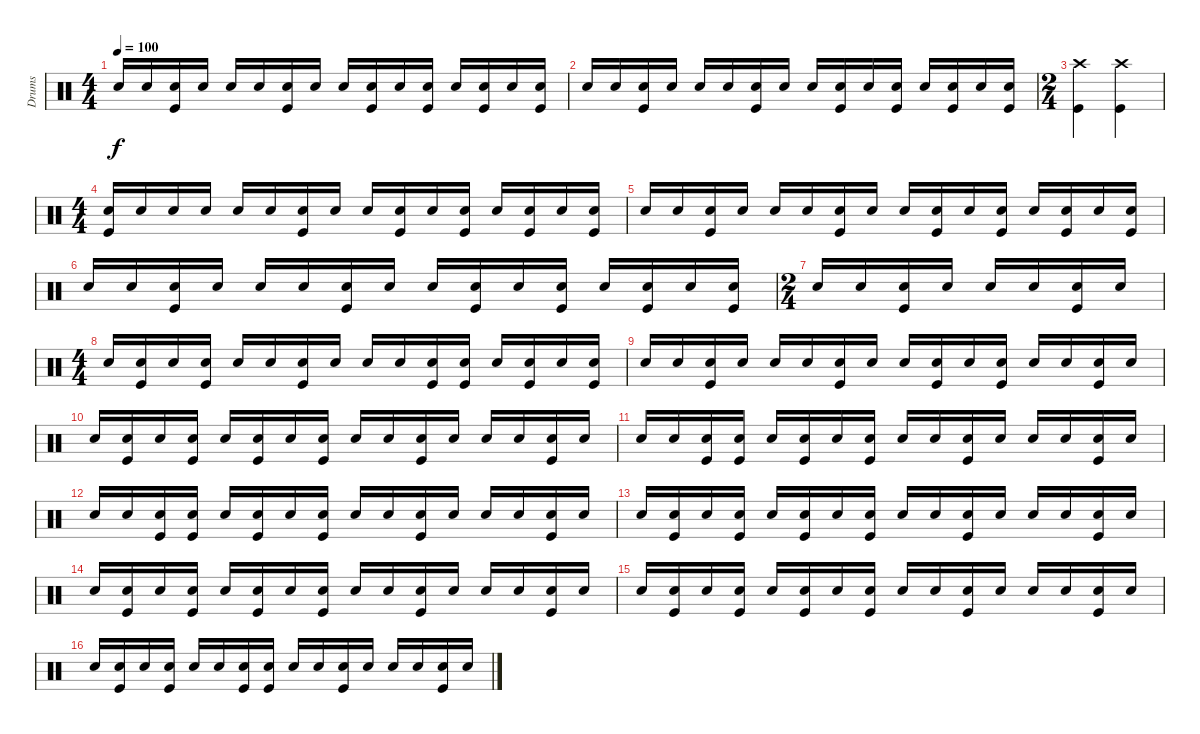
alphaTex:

\track ("Drums" "Drums") {instrument percussion}
\staff {score}
\articulation defaults
\ts (4 4)
\tempo 100
\clef neutral
\ks c "Snare (hit) 2".16{dy f} "Snare (hit) 2".16
("Snare (hit) 2" "Kick (hit)").16 "Snare (hit) 2".16 "Snare (hit) 2".16 "Snare (hit) 2".16 ("Snare (hit) 2" "Kick (hit)").16 "Snare (hit) 2".16 "Snare (hit) 2".16 ("Snare (hit) 2" "Kick (hit)").16 "Snare (hit) 2".16 ("Snare (hit) 2" "Kick (hit)").16 "Snare (hit) 2".16 ("Snare (hit) 2" "Kick (hit)").16 "Snare (hit) 2".16 ("Snare (hit) 2" "Kick (hit)").16 |
"Snare (hit) 2".16 "Snare (hit) 2".16 ("Snare (hit) 2" "Kick (hit)").16 "Snare (hit) 2".16 "Snare (hit) 2".16 "Snare (hit) 2".16 ("Snare (hit) 2" "Kick (hit)").16 "Snare (hit) 2".16 "Snare (hit) 2".16 ("Snare (hit) 2" "Kick (hit)").16 "Snare (hit) 2".16 ("Snare (hit) 2" "Kick (hit)").16 "Snare (hit) 2".16 ("Snare (hit) 2" "Kick (hit)").16 "Snare (hit) 2".16 ("Snare (hit) 2" "Kick (hit)").16 |
\ts (2 4)
("Crash high (hit)" "Kick (hit)").4 ("Crash high (hit)" "Kick (hit)").4 |
\ts (4 4)
("Snare (hit) 2" "Kick (hit)").16 "Snare (hit) 2".16 "Snare (hit) 2".16 "Snare (hit) 2".16 "Snare (hit) 2".16 "Snare (hit) 2".16 ("Snare (hit) 2" "Kick (hit)").16 "Snare (hit) 2".16 "Snare (hit) 2".16 ("Snare (hit) 2" "Kick (hit)").16 "Snare (hit) 2".16 ("Snare (hit) 2" "Kick (hit)").16 "Snare (hit) 2".16 ("Snare (hit) 2" "Kick (hit)").16 "Snare (hit) 2".16 ("Snare (hit) 2" "Kick (hit)").16 |
"Snare (hit) 2".16 "Snare (hit) 2".16 ("Snare (hit) 2" "Kick (hit)").16 "Snare (hit) 2".16 "Snare (hit) 2".16 "Snare (hit) 2".16 ("Snare (hit) 2" "Kick (hit)").16 "Snare (hit) 2".16 "Snare (hit) 2".16 ("Snare (hit) 2" "Kick (hit)").16 "Snare (hit) 2".16 ("Snare (hit) 2" "Kick (hit)").16 "Snare (hit) 2".16 ("Snare (hit) 2" "Kick (hit)").16 "Snare (hit) 2".16 ("Snare (hit) 2" "Kick (hit)").16 |
"Snare (hit) 2".16 "Snare (hit) 2".16 ("Snare (hit) 2" "Kick (hit)").16 "Snare (hit) 2".16 "Snare (hit) 2".16 "Snare (hit) 2".16 ("Snare (hit) 2" "Kick (hit)").16 "Snare (hit) 2".16 "Snare (hit) 2".16 ("Snare (hit) 2" "Kick (hit)").16 "Snare (hit) 2".16 ("Snare (hit) 2" "Kick (hit)").16 "Snare (hit) 2".16 ("Snare (hit) 2" "Kick (hit)").16 "Snare (hit) 2".16 ("Snare (hit) 2" "Kick (hit)").16 |
\ts (2 4)
"Snare (hit) 2".16 "Snare (hit) 2".16 ("Snare (hit) 2" "Kick (hit)").16 "Snare (hit) 2".16 "Snare (hit) 2".16 "Snare (hit) 2".16 ("Snare (hit) 2" "Kick (hit)").16 "Snare (hit) 2".16 |
\ts (4 4)
"Snare (hit) 2".16 ("Snare (hit) 2" "Kick (hit)").16 "Snare (hit) 2".16 ("Snare (hit) 2" "Kick (hit)").16 "Snare (hit) 2".16 "Snare (hit) 2".16 ("Snare (hit) 2" "Kick (hit)").16 "Snare (hit) 2".16 "Snare (hit) 2".16 "Snare (hit) 2".16 ("Snare (hit) 2" "Kick (hit)").16 ("Snare (hit) 2" "Kick (hit)").16 "Snare (hit) 2".16 ("Snare (hit) 2" "Kick (hit)").16 "Snare (hit) 2".16 ("Snare (hit) 2" "Kick (hit)").16 |
"Snare (hit) 2".16 "Snare (hit) 2".16 ("Snare (hit) 2" "Kick (hit)").16 "Snare (hit) 2".16 "Snare (hit) 2".16 "Snare (hit) 2".16 ("Snare (hit) 2" "Kick (hit)").16 "Snare (hit) 2".16 "Snare (hit) 2".16 ("Snare (hit) 2" "Kick (hit)").16 "Snare (hit) 2".16 ("Snare (hit) 2" "Kick (hit)").16 "Snare (hit) 2".16 "Snare (hit) 2".16 ("Snare (hit) 2" "Kick (hit)").16 "Snare (hit) 2".16 |
"Snare (hit) 2".16 ("Snare (hit) 2" "Kick (hit)").16 "Snare (hit) 2".16 ("Snare (hit) 2" "Kick (hit)").16 "Snare (hit) 2".16 ("Snare (hit) 2" "Kick (hit)").16 "Snare (hit) 2".16 ("Snare (hit) 2" "Kick (hit)").16 "Snare (hit) 2".16 "Snare (hit) 2".16 ("Snare (hit) 2" "Kick (hit)").16 "Snare (hit) 2".16 "Snare (hit) 2".16 "Snare (hit) 2".16 ("Snare (hit) 2" "Kick (hit)").16 "Snare (hit) 2".16 |
"Snare (hit) 2".16 "Snare (hit) 2".16 ("Snare (hit) 2" "Kick (hit)").16 ("Snare (hit) 2" "Kick (hit)").16 "Snare (hit) 2".16 ("Snare (hit) 2" "Kick (hit)").16 "Snare (hit) 2".16 ("Snare (hit) 2" "Kick (hit)").16 "Snare (hit) 2".16 "Snare (hit) 2".16 ("Snare (hit) 2" "Kick (hit)").16 "Snare (hit) 2".16 "Snare (hit) 2".16 "Snare (hit) 2".16 ("Snare (hit) 2" "Kick (hit)").16 "Snare (hit) 2".16 |
"Snare (hit) 2".16 "Snare (hit) 2".16 ("Snare (hit) 2" "Kick (hit)").16 ("Snare (hit) 2" "Kick (hit)").16 "Snare (hit) 2".16 ("Snare (hit) 2" "Kick (hit)").16 "Snare (hit) 2".16 ("Snare (hit) 2" "Kick (hit)").16 "Snare (hit) 2".16 "Snare (hit) 2".16 ("Snare (hit) 2" "Kick (hit)").16 "Snare (hit) 2".16 "Snare (hit) 2".16 "Snare (hit) 2".16 ("Snare (hit) 2" "Kick (hit)").16 "Snare (hit) 2".16 |
"Snare (hit) 2".16 ("Snare (hit) 2" "Kick (hit)").16 "Snare (hit) 2".16 ("Snare (hit) 2" "Kick (hit)").16 "Snare (hit) 2".16 ("Snare (hit) 2" "Kick (hit)").16 "Snare (hit) 2".16 ("Snare (hit) 2" "Kick (hit)").16 "Snare (hit) 2".16 "Snare (hit) 2".16 ("Snare (hit) 2" "Kick (hit)").16 "Snare (hit) 2".16 "Snare (hit) 2".16 "Snare (hit) 2".16 ("Snare (hit) 2" "Kick (hit)").16 "Snare (hit) 2".16 |
"Snare (hit) 2".16 ("Snare (hit) 2" "Kick (hit)").16 "Snare (hit) 2".16 ("Snare (hit) 2" "Kick (hit)").16 "Snare (hit) 2".16 ("Snare (hit) 2" "Kick (hit)").16 "Snare (hit) 2".16 ("Snare (hit) 2" "Kick (hit)").16 "Snare (hit) 2".16 "Snare (hit) 2".16 ("Snare (hit) 2" "Kick (hit)").16 "Snare (hit) 2".16 "Snare (hit) 2".16 "Snare (hit) 2".16 ("Snare (hit) 2" "Kick (hit)").16 "Snare (hit) 2".16 |
"Snare (hit) 2".16 ("Snare (hit) 2" "Kick (hit)").16 "Snare (hit) 2".16 ("Snare (hit) 2" "Kick (hit)").16 "Snare (hit) 2".16 ("Snare (hit) 2" "Kick (hit)").16 "Snare (hit) 2".16 ("Snare (hit) 2" "Kick (hit)").16 "Snare (hit) 2".16 "Snare (hit) 2".16 ("Snare (hit) 2" "Kick (hit)").16 "Snare (hit) 2".16 "Snare (hit) 2".16 "Snare (hit) 2".16 ("Snare (hit) 2" "Kick (hit)").16 "Snare (hit) 2".16 |
"Snare (hit) 2".16 ("Snare (hit) 2" "Kick (hit)").16 "Snare (hit) 2".16 ("Snare (hit) 2" "Kick (hit)").16 "Snare (hit) 2".16 "Snare (hit) 2".16 ("Snare (hit) 2" "Kick (hit)").16 ("Snare (hit) 2" "Kick (hit)").16 "Snare (hit) 2".16 "Snare (hit) 2".16 ("Snare (hit) 2" "Kick (hit)").16 "Snare (hit) 2".16 "Snare (hit) 2".16 "Snare (hit) 2".16 ("Snare (hit) 2" "Kick (hit)").16 "Snare (hit) 2".16
